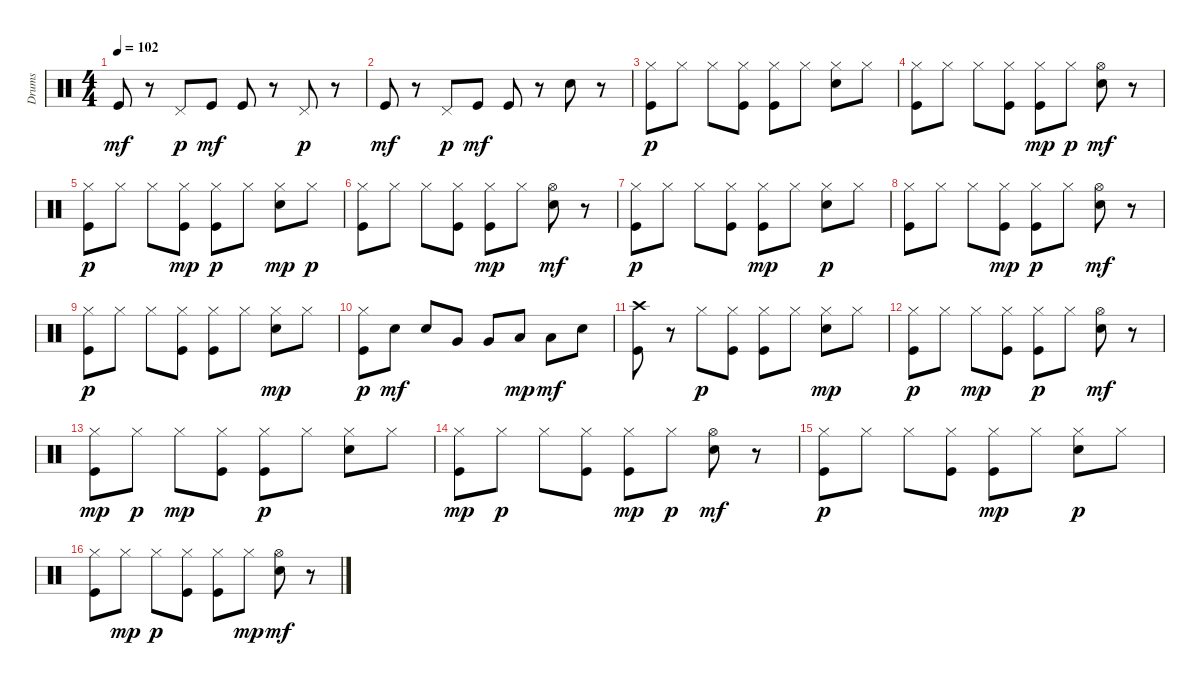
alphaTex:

\track ("Drums" "Drums") {instrument percussion}
\staff {score}
\articulation defaults
\ts (4 4)
\tempo 102
\clef neutral
\ks c "Kick (hit)".8{dy mf}
r.8 "Pedal Hi-Hat (hit)".8{dy p} "Kick (hit)".8{dy mf} "Kick (hit)".8 r.8 "Pedal Hi-Hat (hit)".8{dy p} r.8 |
"Kick (hit)".8{dy mf} r.8 "Pedal Hi-Hat (hit)".8{dy p} "Kick (hit)".8{dy mf} "Kick (hit)".8 r.8 "Snare (hit) 2".8 r.8 |
("Kick (hit)" "Hi-Hat (closed)").8{dy p} "Hi-Hat (closed)".8 "Hi-Hat (closed)".8 ("Kick (hit)" "Hi-Hat (closed)").8 ("Kick (hit)" "Hi-Hat (closed)").8 "Hi-Hat (closed)".8 ("Snare (hit) 2" "Hi-Hat (closed)").8 "Hi-Hat (closed)".8 |
("Kick (hit)" "Hi-Hat (closed)").8 "Hi-Hat (closed)".8 "Hi-Hat (closed)".8 ("Kick (hit)" "Hi-Hat (closed)").8 ("Kick (hit)" "Hi-Hat (closed)").8{dy mp} "Hi-Hat (closed)".8{dy p} ("Hi-Hat (open)" "Snare (hit) 2").8{dy mf} r.8 |
("Kick (hit)" "Hi-Hat (closed)").8{dy p} "Hi-Hat (closed)".8 "Hi-Hat (closed)".8 ("Kick (hit)" "Hi-Hat (closed)").8{dy mp} ("Kick (hit)" "Hi-Hat (closed)").8{dy p} "Hi-Hat (closed)".8 ("Snare (hit) 2" "Hi-Hat (closed)").8{dy mp} "Hi-Hat (closed)".8{dy p} |
("Kick (hit)" "Hi-Hat (closed)").8 "Hi-Hat (closed)".8 "Hi-Hat (closed)".8 ("Kick (hit)" "Hi-Hat (closed)").8 ("Kick (hit)" "Hi-Hat (closed)").8{dy mp} "Hi-Hat (closed)".8 ("Hi-Hat (open)" "Snare (hit) 2").8{dy mf} r.8 |
("Kick (hit)" "Hi-Hat (closed)").8{dy p} "Hi-Hat (closed)".8 "Hi-Hat (closed)".8 ("Kick (hit)" "Hi-Hat (closed)").8 ("Kick (hit)" "Hi-Hat (closed)").8{dy mp} "Hi-Hat (closed)".8 ("Snare (hit) 2" "Hi-Hat (closed)").8{dy p} "Hi-Hat (closed)".8 |
("Kick (hit)" "Hi-Hat (closed)").8 "Hi-Hat (closed)".8 "Hi-Hat (closed)".8 ("Kick (hit)" "Hi-Hat (closed)").8{dy mp} ("Kick (hit)" "Hi-Hat (closed)").8{dy p} "Hi-Hat (closed)".8 ("Hi-Hat (open)" "Snare (hit) 2").8{dy mf} r.8 |
("Kick (hit)" "Hi-Hat (closed)").8{dy p} "Hi-Hat (closed)".8 "Hi-Hat (closed)".8 ("Kick (hit)" "Hi-Hat (closed)").8 ("Kick (hit)" "Hi-Hat (closed)").8 "Hi-Hat (closed)".8 ("Snare (hit) 2" "Hi-Hat (closed)").8{dy mp} "Hi-Hat (closed)".8 |
("Kick (hit)" "Hi-Hat (closed)").8{dy p} "Snare (hit) 2".8{dy mf} "Snare (hit) 2".8 "Very Low Tom (hit)".8 "Very Low Tom (hit)".8 "Low Floor Tom (hit)".8{dy mp} "Low Floor Tom (hit)".8{dy mf} "Snare (hit) 2".8 |
("Crash high (hit)" "Kick (hit)").8 r.8 "Hi-Hat (closed)".8{dy p} ("Kick (hit)" "Hi-Hat (closed)").8 ("Kick (hit)" "Hi-Hat (closed)").8 "Hi-Hat (closed)".8 ("Snare (hit) 2" "Hi-Hat (closed)").8{dy mp} "Hi-Hat (closed)".8 |
("Kick (hit)" "Hi-Hat (closed)").8{dy p} "Hi-Hat (closed)".8 "Hi-Hat (closed)".8{dy mp} ("Kick (hit)" "Hi-Hat (closed)").8 ("Kick (hit)" "Hi-Hat (closed)").8{dy p} "Hi-Hat (closed)".8 ("Hi-Hat (open)" "Snare (hit) 2").8{dy mf} r.8 |
("Kick (hit)" "Hi-Hat (closed)").8{dy mp} "Hi-Hat (closed)".8{dy p} "Hi-Hat (closed)".8{dy mp} ("Kick (hit)" "Hi-Hat (closed)").8 ("Kick (hit)" "Hi-Hat (closed)").8{dy p} "Hi-Hat (closed)".8 ("Snare (hit) 2" "Hi-Hat (closed)").8 "Hi-Hat (closed)".8 |
("Kick (hit)" "Hi-Hat (closed)").8{dy mp} "Hi-Hat (closed)".8{dy p} "Hi-Hat (closed)".8 ("Kick (hit)" "Hi-Hat (closed)").8 ("Kick (hit)" "Hi-Hat (closed)").8{dy mp} "Hi-Hat (closed)".8{dy p} ("Hi-Hat (open)" "Snare (hit) 2").8{dy mf} r.8 |
("Kick (hit)" "Hi-Hat (closed)").8{dy p} "Hi-Hat (closed)".8 "Hi-Hat (closed)".8 ("Kick (hit)" "Hi-Hat (closed)").8 ("Kick (hit)" "Hi-Hat (closed)").8{dy mp} "Hi-Hat (closed)".8 ("Snare (hit) 2" "Hi-Hat (closed)").8{dy p} "Hi-Hat (closed)".8 |
("Kick (hit)" "Hi-Hat (closed)").8 "Hi-Hat (closed)".8{dy mp} "Hi-Hat (closed)".8{dy p} ("Kick (hit)" "Hi-Hat (closed)").8 ("Kick (hit)" "Hi-Hat (closed)").8 "Hi-Hat (closed)".8{dy mp} ("Hi-Hat (open)" "Snare (hit) 2").8{dy mf} r.8
